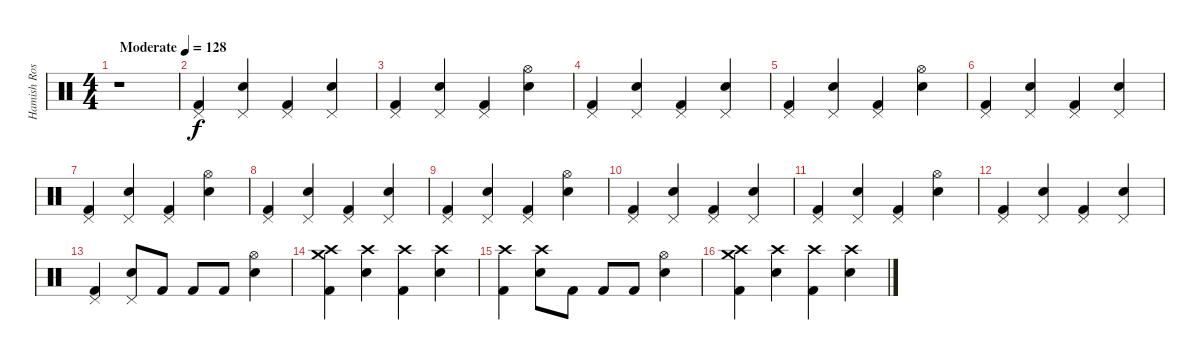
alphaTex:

\track ("Hamish Rosser" "Hamish Ros") {instrument percussion}
\staff {score}
\articulation defaults
\ts (4 4)
\tempo (128 "Moderate")
\clef neutral
\ks c
r.1{dy f} |
("Pedal Hi-Hat (hit)" "Kick (hit) 2").4 ("Pedal Hi-Hat (hit)" "Snare (hit) 2").4 ("Pedal Hi-Hat (hit)" "Kick (hit) 2").4 ("Pedal Hi-Hat (hit)" "Snare (hit) 2").4 |
("Pedal Hi-Hat (hit)" "Kick (hit) 2").4 ("Pedal Hi-Hat (hit)" "Snare (hit) 2").4 ("Pedal Hi-Hat (hit)" "Kick (hit) 2").4 ("Hi-Hat (open)" "Snare (hit) 2").4 |
("Pedal Hi-Hat (hit)" "Kick (hit) 2").4 ("Pedal Hi-Hat (hit)" "Snare (hit) 2").4 ("Pedal Hi-Hat (hit)" "Kick (hit) 2").4 ("Pedal Hi-Hat (hit)" "Snare (hit) 2").4 |
("Pedal Hi-Hat (hit)" "Kick (hit) 2").4 ("Pedal Hi-Hat (hit)" "Snare (hit) 2").4 ("Pedal Hi-Hat (hit)" "Kick (hit) 2").4 ("Hi-Hat (open)" "Snare (hit) 2").4 |
("Pedal Hi-Hat (hit)" "Kick (hit) 2").4 ("Pedal Hi-Hat (hit)" "Snare (hit) 2").4 ("Pedal Hi-Hat (hit)" "Kick (hit) 2").4 ("Pedal Hi-Hat (hit)" "Snare (hit) 2").4 |
("Pedal Hi-Hat (hit)" "Kick (hit) 2").4 ("Pedal Hi-Hat (hit)" "Snare (hit) 2").4 ("Pedal Hi-Hat (hit)" "Kick (hit) 2").4 ("Hi-Hat (open)" "Snare (hit) 2").4 |
("Pedal Hi-Hat (hit)" "Kick (hit) 2").4 ("Pedal Hi-Hat (hit)" "Snare (hit) 2").4 ("Pedal Hi-Hat (hit)" "Kick (hit) 2").4 ("Pedal Hi-Hat (hit)" "Snare (hit) 2").4 |
("Pedal Hi-Hat (hit)" "Kick (hit) 2").4 ("Pedal Hi-Hat (hit)" "Snare (hit) 2").4 ("Pedal Hi-Hat (hit)" "Kick (hit) 2").4 ("Hi-Hat (open)" "Snare (hit) 2").4 |
("Pedal Hi-Hat (hit)" "Kick (hit) 2").4 ("Pedal Hi-Hat (hit)" "Snare (hit) 2").4 ("Pedal Hi-Hat (hit)" "Kick (hit) 2").4 ("Pedal Hi-Hat (hit)" "Snare (hit) 2").4 |
("Pedal Hi-Hat (hit)" "Kick (hit) 2").4 ("Pedal Hi-Hat (hit)" "Snare (hit) 2").4 ("Pedal Hi-Hat (hit)" "Kick (hit) 2").4 ("Hi-Hat (open)" "Snare (hit) 2").4 |
("Pedal Hi-Hat (hit)" "Kick (hit) 2").4 ("Pedal Hi-Hat (hit)" "Snare (hit) 2").4 ("Pedal Hi-Hat (hit)" "Kick (hit) 2").4 ("Pedal Hi-Hat (hit)" "Snare (hit) 2").4 |
("Pedal Hi-Hat (hit)" "Kick (hit) 2").4 ("Pedal Hi-Hat (hit)" "Snare (hit) 2").8 "Kick (hit) 2".8 "Kick (hit) 2".8 "Kick (hit) 2".8 ("Hi-Hat (open)" "Snare (hit) 2").4 |
("Crash high (hit)" "Crash medium (hit)" "Kick (hit) 2").4 ("Crash high (hit)" "Snare (hit) 2").4 ("Crash high (hit)" "Kick (hit) 2").4 ("Crash high (hit)" "Snare (hit) 2").4 |
("Crash high (hit)" "Kick (hit) 2").4 ("Crash high (hit)" "Snare (hit) 2").8 "Kick (hit) 2".8 "Kick (hit) 2".8 "Kick (hit) 2".8 ("Hi-Hat (open)" "Snare (hit) 2").4 |
("Crash high (hit)" "Crash medium (hit)" "Kick (hit) 2").4 ("Crash high (hit)" "Snare (hit) 2").4 ("Crash high (hit)" "Kick (hit) 2").4 ("Crash high (hit)" "Snare (hit) 2").4
